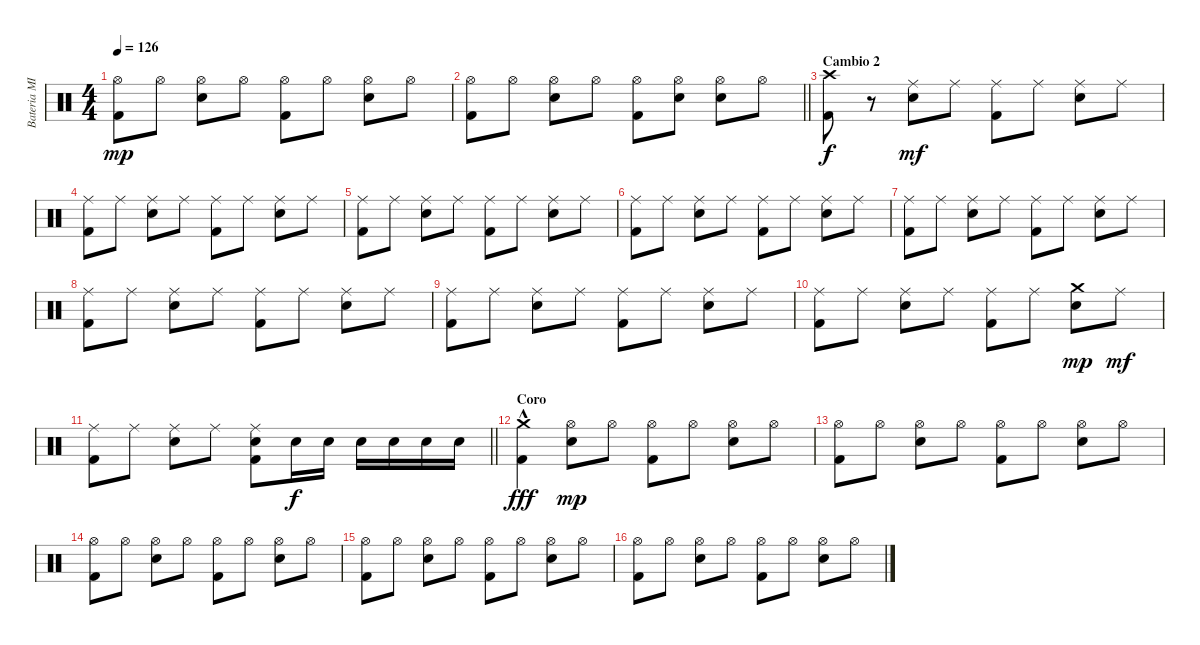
\track ("Bateria MIDI" "Bateria MI") {instrument percussion}
\staff {score}
\articulation defaults
\ts (4 4)
\tempo 126
\clef neutral
\ks c
("Hi-Hat (open)" "Kick (hit) 2").8{dy mp} "Hi-Hat (open)".8 ("Hi-Hat (open)" "Snare (hit) 2").8 "Hi-Hat (open)".8 ("Hi-Hat (open)" "Kick (hit) 2").8 "Hi-Hat (open)".8 ("Hi-Hat (open)" "Snare (hit) 2").8 "Hi-Hat (open)".8 |
\barLineRight lightlight
("Hi-Hat (open)" "Kick (hit) 2").8 "Hi-Hat (open)".8 ("Hi-Hat (open)" "Snare (hit) 2").8 "Hi-Hat (open)".8 ("Hi-Hat (open)" "Kick (hit) 2").8 ("Hi-Hat (open)" "Snare (hit) 2").8 ("Hi-Hat (open)" "Snare (hit) 2").8 "Hi-Hat (open)".8 |
\section ("" "Cambio 2")
("Crash high (hit)" "Kick (hit) 2").8{dy f} r.8 ("Ride (middle)" "Snare (hit) 2").8{dy mf} "Ride (middle)".8 ("Ride (middle)" "Kick (hit) 2").8 "Ride (middle)".8 ("Ride (middle)" "Snare (hit) 2").8 "Ride (middle)".8 |
("Ride (middle)" "Kick (hit) 2").8 "Ride (middle)".8 ("Ride (middle)" "Snare (hit) 2").8 "Ride (middle)".8 ("Ride (middle)" "Kick (hit) 2").8 "Ride (middle)".8 ("Ride (middle)" "Snare (hit) 2").8 "Ride (middle)".8 |
("Ride (middle)" "Kick (hit) 2").8 "Ride (middle)".8 ("Ride (middle)" "Snare (hit) 2").8 "Ride (middle)".8 ("Ride (middle)" "Kick (hit) 2").8 "Ride (middle)".8 ("Ride (middle)" "Snare (hit) 2").8 "Ride (middle)".8 |
("Ride (middle)" "Kick (hit) 2").8 "Ride (middle)".8 ("Ride (middle)" "Snare (hit) 2").8 "Ride (middle)".8 ("Ride (middle)" "Kick (hit) 2").8 "Ride (middle)".8 ("Ride (middle)" "Snare (hit) 2").8 "Ride (middle)".8 |
("Ride (middle)" "Kick (hit) 2").8 "Ride (middle)".8 ("Ride (middle)" "Snare (hit) 2").8 "Ride (middle)".8 ("Ride (middle)" "Kick (hit) 2").8 "Ride (middle)".8 ("Ride (middle)" "Snare (hit) 2").8 "Ride (middle)".8 |
("Ride (middle)" "Kick (hit) 2").8 "Ride (middle)".8 ("Ride (middle)" "Snare (hit) 2").8 "Ride (middle)".8 ("Ride (middle)" "Kick (hit) 2").8 "Ride (middle)".8 ("Ride (middle)" "Snare (hit) 2").8 "Ride (middle)".8 |
("Ride (middle)" "Kick (hit) 2").8 "Ride (middle)".8 ("Ride (middle)" "Snare (hit) 2").8 "Ride (middle)".8 ("Ride (middle)" "Kick (hit) 2").8 "Ride (middle)".8 ("Ride (middle)" "Snare (hit) 2").8 "Ride (middle)".8 |
("Ride (middle)" "Kick (hit) 2").8 "Ride (middle)".8 ("Ride (middle)" "Snare (hit) 2").8 "Ride (middle)".8 ("Ride (middle)" "Kick (hit) 2").8 "Ride (middle)".8 ("Crash medium (hit)" "Snare (hit) 2").8{dy mp} "Ride (middle)".8{dy mf} |
\barLineRight lightlight
("Ride (middle)" "Kick (hit) 2").8 "Ride (middle)".8 ("Ride (middle)" "Snare (hit) 2").8 "Ride (middle)".8 ("Ride (middle)" "Snare (hit) 2" "Kick (hit) 2").8 "Snare (hit) 2".16{dy f} "Snare (hit) 2".16 "Snare (hit) 2".16 "Snare (hit) 2".16 "Snare (hit) 2".16 "Snare (hit) 2".16 |
\section ("" "Coro")
("Crash medium (hit)"{hac} "Kick (hit) 2").4{dy fff} ("Hi-Hat (open)" "Snare (hit) 2").8{dy mp} "Hi-Hat (open)".8 ("Hi-Hat (open)" "Kick (hit) 2").8 "Hi-Hat (open)".8 ("Hi-Hat (open)" "Snare (hit) 2").8 "Hi-Hat (open)".8 |
("Hi-Hat (open)" "Kick (hit) 2").8 "Hi-Hat (open)".8 ("Hi-Hat (open)" "Snare (hit) 2").8 "Hi-Hat (open)".8 ("Hi-Hat (open)" "Kick (hit) 2").8 "Hi-Hat (open)".8 ("Hi-Hat (open)" "Snare (hit) 2").8 "Hi-Hat (open)".8 |
("Hi-Hat (open)" "Kick (hit) 2").8 "Hi-Hat (open)".8 ("Hi-Hat (open)" "Snare (hit) 2").8 "Hi-Hat (open)".8 ("Hi-Hat (open)" "Kick (hit) 2").8 "Hi-Hat (open)".8 ("Hi-Hat (open)" "Snare (hit) 2").8 "Hi-Hat (open)".8 |
("Hi-Hat (open)" "Kick (hit) 2").8 "Hi-Hat (open)".8 ("Hi-Hat (open)" "Snare (hit) 2").8 "Hi-Hat (open)".8 ("Hi-Hat (open)" "Kick (hit) 2").8 "Hi-Hat (open)".8 ("Hi-Hat (open)" "Snare (hit) 2").8 "Hi-Hat (open)".8 |
("Hi-Hat (open)" "Kick (hit) 2").8 "Hi-Hat (open)".8 ("Hi-Hat (open)" "Snare (hit) 2").8 "Hi-Hat (open)".8 ("Hi-Hat (open)" "Kick (hit) 2").8 "Hi-Hat (open)".8 ("Hi-Hat (open)" "Snare (hit) 2").8 "Hi-Hat (open)".8
